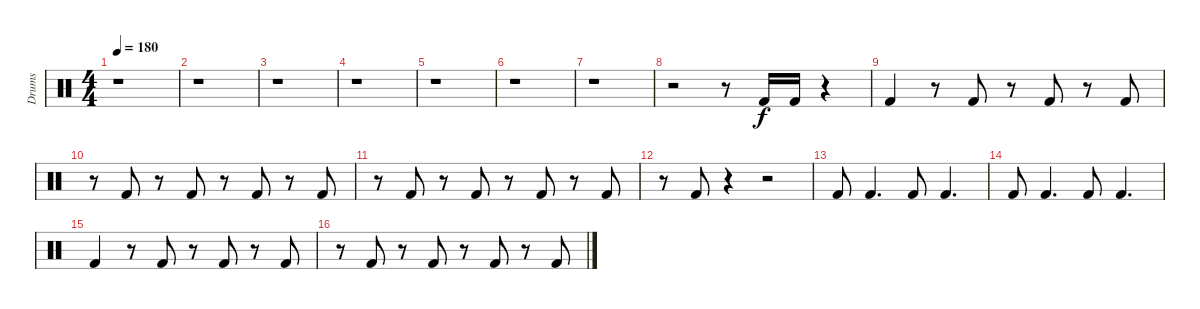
\track ("Drums" "Drums") {instrument percussion}
\staff {score}
\articulation defaults
\ts (4 4)
\tempo 180
\clef neutral
\ks c
r.1{dy f} |
r.1 |
r.1 |
r.1 |
r.1 |
r.1 |
r.1 |
r.2 r.8 "Kick (hit) 2".16 "Kick (hit) 2".16 r.4 |
"Kick (hit) 2".4 r.8 "Kick (hit) 2".8 r.8 "Kick (hit) 2".8 r.8 "Kick (hit) 2".8 |
r.8 "Kick (hit) 2".8 r.8 "Kick (hit) 2".8 r.8 "Kick (hit) 2".8 r.8 "Kick (hit) 2".8 |
r.8 "Kick (hit) 2".8 r.8 "Kick (hit) 2".8 r.8 "Kick (hit) 2".8 r.8 "Kick (hit) 2".8 |
r.8 "Kick (hit) 2".8 r.4 r.2 |
"Kick (hit) 2".8 "Kick (hit) 2".4{d} "Kick (hit) 2".8 "Kick (hit) 2".4{d} |
"Kick (hit) 2".8 "Kick (hit) 2".4{d} "Kick (hit) 2".8 "Kick (hit) 2".4{d} |
"Kick (hit) 2".4 r.8 "Kick (hit) 2".8 r.8 "Kick (hit) 2".8 r.8 "Kick (hit) 2".8 |
r.8 "Kick (hit) 2".8 r.8 "Kick (hit) 2".8 r.8 "Kick (hit) 2".8 r.8 "Kick (hit) 2".8
